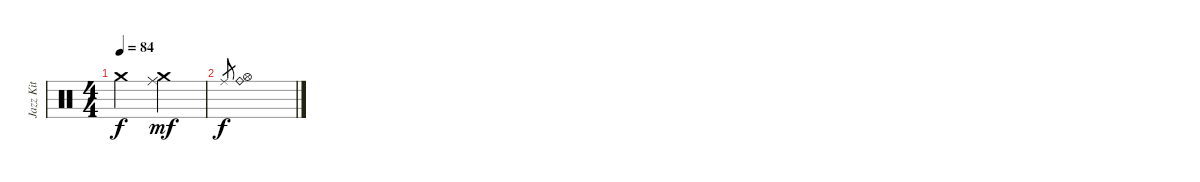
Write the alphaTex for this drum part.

\track ("Jazz Kit" "Jazz Kit") {instrument percussion}
\staff {score}
\articulation defaults
\ts (4 4)
\tempo 84
\clef neutral
\ks c "Crash medium (hit)".2{dy f}
("Ride (middle)" "Crash medium (hit)").2{dy mf volume 0} |
"Ride (middle)".8{gr dy f} ("Ride (bell)" "Hi-Hat (open)").1
